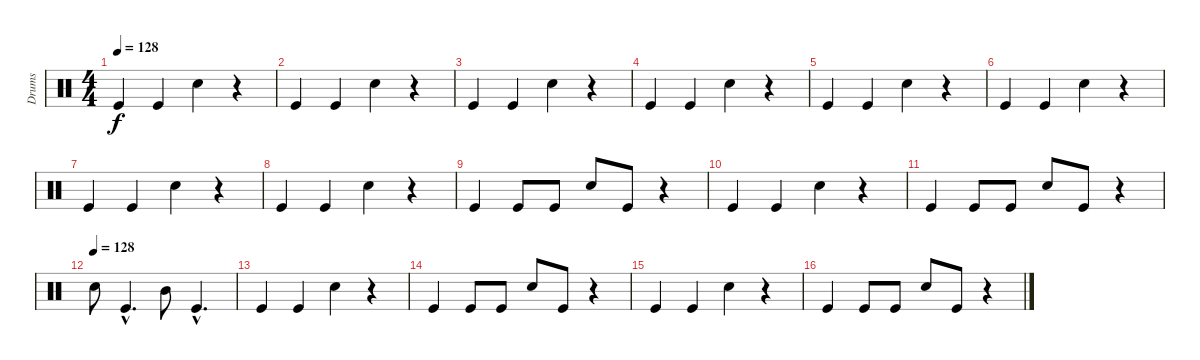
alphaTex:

\track ("Drums" "Drums") {instrument percussion}
\staff {score}
\articulation defaults
\ts (4 4)
\tempo 128
\clef neutral
\ks c "Kick (hit)".4{dy f} "Kick (hit)".4 "Snare (hit) 2".4
r.4 |
"Kick (hit)".4 "Kick (hit)".4 "Snare (hit) 2".4 r.4 |
"Kick (hit)".4 "Kick (hit)".4 "Snare (hit) 2".4 r.4 |
"Kick (hit)".4 "Kick (hit)".4 "Snare (hit) 2".4 r.4 |
"Kick (hit)".4 "Kick (hit)".4 "Snare (hit) 2".4 r.4 |
"Kick (hit)".4 "Kick (hit)".4 "Snare (hit) 2".4 r.4 |
"Kick (hit)".4 "Kick (hit)".4 "Snare (hit) 2".4 r.4 |
"Kick (hit)".4 "Kick (hit)".4 "Snare (hit) 2".4 r.4 |
"Kick (hit)".4 "Kick (hit)".8 "Kick (hit)".8 "Snare (hit) 2".8 "Kick (hit)".8 r.4 |
"Kick (hit)".4 "Kick (hit)".4 "Snare (hit) 2".4 r.4 |
"Kick (hit)".4 "Kick (hit)".8 "Kick (hit)".8 "Snare (hit) 2".8 "Kick (hit)".8 r.4 |
\tempo (128)
"Snare (hit) 2".8 "Kick (hit)"{hac}.4{d} "Mid Tom (hit)".8 "Kick (hit)"{hac}.4{d} |
"Kick (hit)".4 "Kick (hit)".4 "Snare (hit) 2".4 r.4 |
"Kick (hit)".4 "Kick (hit)".8 "Kick (hit)".8 "Snare (hit) 2".8 "Kick (hit)".8 r.4 |
"Kick (hit)".4 "Kick (hit)".4 "Snare (hit) 2".4 r.4 |
"Kick (hit)".4 "Kick (hit)".8 "Kick (hit)".8 "Snare (hit) 2".8 "Kick (hit)".8 r.4
